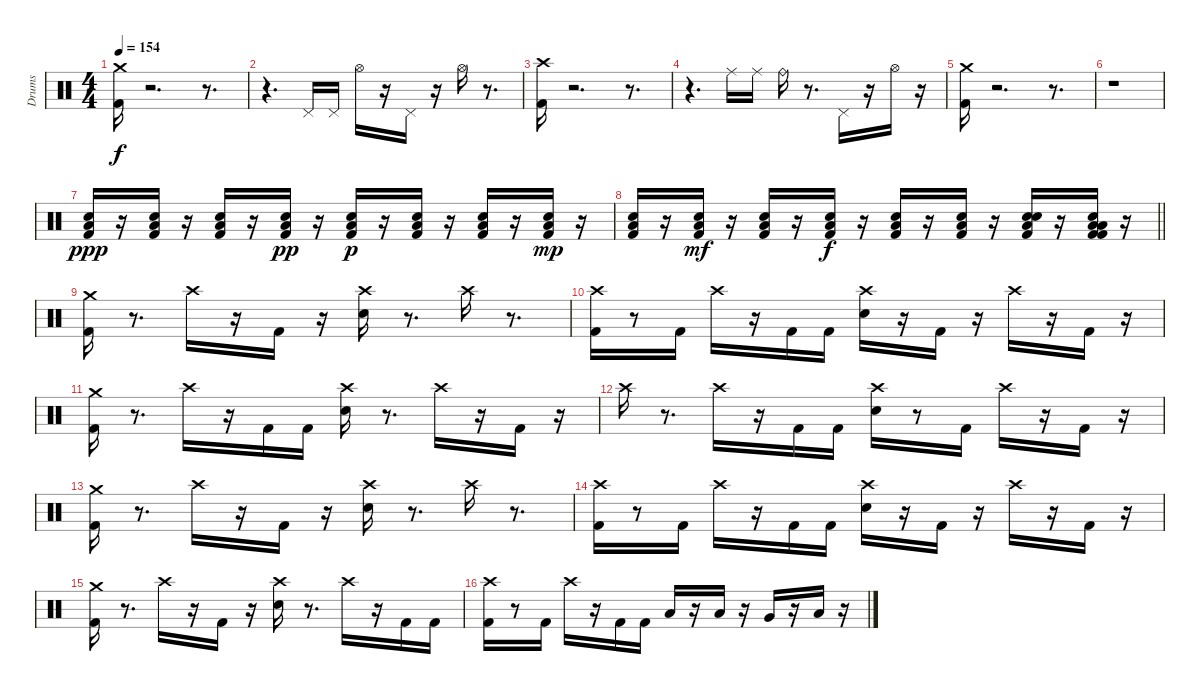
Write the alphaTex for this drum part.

\track ("Drums" "Drums") {instrument percussion}
\staff {score}
\articulation defaults
\ts (4 4)
\tempo 154
\clef neutral
\ks c
("Kick (hit) 2" "Crash medium (hit)").16{dy f} r.2{d} r.8{d} |
r.4{d} "Pedal Hi-Hat (hit)".16 "Pedal Hi-Hat (hit)".16 "Hi-Hat (open)".16 r.16 "Pedal Hi-Hat (hit)".16 r.16 "Hi-Hat (open)".16 r.8{d} |
("Kick (hit) 2" "Crash high (hit)").16 r.2{d} r.8{d} |
r.4{d} "Ride (middle)".16 "Ride (middle)".16 "Ride (bell)".16 r.8{d} "Pedal Hi-Hat (hit)".16 r.16 "Hi-Hat (open)".16 r.16 |
("Kick (hit) 2" "Crash medium (hit)").16 r.2{d} r.8{d} |
r.1 |
("Kick (hit) 2" "Snare (hit) 2" "Low Floor Tom (hit)").16{dy ppp} r.16 ("Kick (hit) 2" "Snare (hit) 2" "Low Floor Tom (hit)").16 r.16 ("Kick (hit) 2" "Snare (hit) 2" "Low Floor Tom (hit)").16 r.16 ("Kick (hit) 2" "Snare (hit) 2" "Low Floor Tom (hit)").16{dy pp} r.16 ("Kick (hit) 2" "Snare (hit) 2" "Low Floor Tom (hit)").16{dy p} r.16 ("Kick (hit) 2" "Snare (hit) 2" "Low Floor Tom (hit)").16 r.16 ("Kick (hit) 2" "Snare (hit) 2" "Low Floor Tom (hit)").16 r.16 ("Kick (hit) 2" "Snare (hit) 2" "Low Floor Tom (hit)").16{dy mp} r.16 |
\barLineRight lightlight
("Kick (hit) 2" "Snare (hit) 2" "Low Floor Tom (hit)").16 r.16 ("Kick (hit) 2" "Snare (hit) 2" "Low Floor Tom (hit)").16{dy mf} r.16 ("Kick (hit) 2" "Snare (hit) 2" "Low Floor Tom (hit)").16 r.16 ("Kick (hit) 2" "Snare (hit) 2" "Low Floor Tom (hit)").16{dy f} r.16 ("Kick (hit) 2" "Snare (hit) 2" "Low Floor Tom (hit)").16 r.16 ("Kick (hit) 2" "Snare (hit) 2" "Low Floor Tom (hit)").16 r.16 ("Kick (hit) 2" "Snare (hit) 2" "Snare (hit) 2" "Low Floor Tom (hit)").16 r.16 ("Kick (hit) 2" "Kick (hit) 2" "Snare (hit) 2" "Low Floor Tom (hit)" "Low Floor Tom (hit)").16 r.16 |
\section ("" " ")
("Kick (hit) 2" "Crash medium (hit)").16 r.8{d} "Crash high (hit)".16 r.16 "Kick (hit) 2".16 r.16 ("Snare (hit) 2" "Crash high (hit)").16 r.8{d} "Crash high (hit)".16 r.8{d} |
("Kick (hit) 2" "Crash high (hit)").16 r.8 "Kick (hit) 2".16 "Crash high (hit)".16 r.16 "Kick (hit) 2".16 "Kick (hit) 2".16 ("Snare (hit) 2" "Crash high (hit)").16 r.16 "Kick (hit) 2".16 r.16 "Crash high (hit)".16 r.16 "Kick (hit) 2".16 r.16 |
("Kick (hit) 2" "Crash medium (hit)").16 r.8{d} "Crash high (hit)".16 r.16 "Kick (hit) 2".16 "Kick (hit) 2".16 ("Snare (hit) 2" "Crash high (hit)").16 r.8{d} "Crash high (hit)".16 r.16 "Kick (hit) 2".16 r.16 |
"Crash high (hit)".16 r.8{d} "Crash high (hit)".16 r.16 "Kick (hit) 2".16 "Kick (hit) 2".16 ("Snare (hit) 2" "Crash high (hit)").16 r.8 "Kick (hit) 2".16 "Crash high (hit)".16 r.16 "Kick (hit) 2".16 r.16 |
("Kick (hit) 2" "Crash medium (hit)").16 r.8{d} "Crash high (hit)".16 r.16 "Kick (hit) 2".16 r.16 ("Snare (hit) 2" "Crash high (hit)").16 r.8{d} "Crash high (hit)".16 r.8{d} |
("Kick (hit) 2" "Crash high (hit)").16 r.8 "Kick (hit) 2".16 "Crash high (hit)".16 r.16 "Kick (hit) 2".16 "Kick (hit) 2".16 ("Snare (hit) 2" "Crash high (hit)").16 r.16 "Kick (hit) 2".16 r.16 "Crash high (hit)".16 r.16 "Kick (hit) 2".16 r.16 |
("Kick (hit) 2" "Crash medium (hit)").16 r.8{d} "Crash high (hit)".16 r.16 "Kick (hit) 2".16 r.16 ("Snare (hit) 2" "Crash high (hit)").16 r.8{d} "Crash high (hit)".16 r.16 "Kick (hit) 2".16 "Kick (hit) 2".16 |
("Kick (hit) 2" "Crash high (hit)").16 r.8 "Kick (hit) 2".16 "Crash high (hit)".16 r.16 "Kick (hit) 2".16 "Kick (hit) 2".16 "Low Tom (hit)".16 r.16 "Low Tom (hit)".16 r.16 "Very Low Tom (hit)".16 r.16 "Low Floor Tom (hit)".16 r.16
